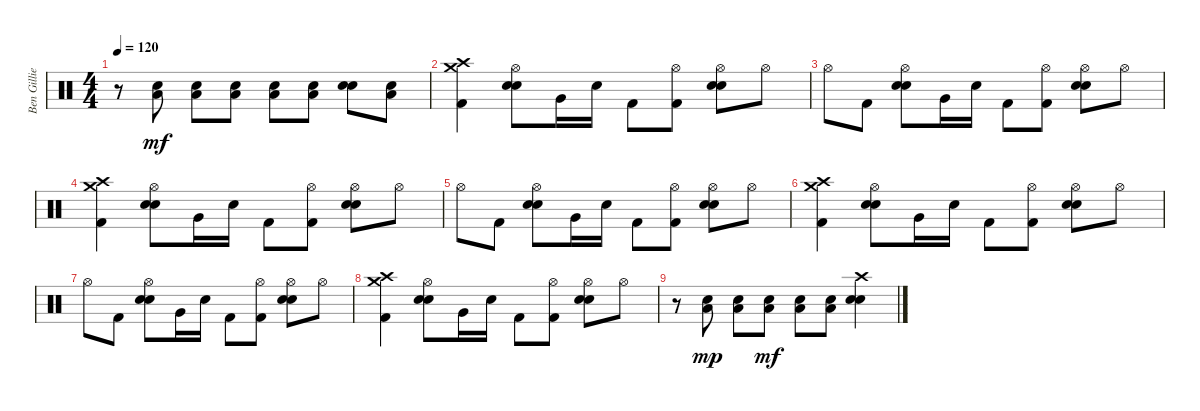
\track ("Ben Gillies" "Ben Gillie") {instrument percussion}
\staff {score}
\articulation defaults
\ts (4 4)
\tempo 120
\clef neutral
\ks c
r.8{dy mf} ("Low Floor Tom (hit)" "Electric Snare (hit)").8 ("Low Floor Tom (hit)" "Electric Snare (hit)").8 ("Low Floor Tom (hit)" "Electric Snare (hit)").8 ("Low Floor Tom (hit)" "Electric Snare (hit)").8 ("Low Floor Tom (hit)" "Electric Snare (hit)").8 ("Electric Snare (hit)" "Electric Snare (hit)").8 ("Low Floor Tom (hit)" "Electric Snare (hit)").8 |
("Crash high (hit)" "Crash medium (hit)" "Kick (hit) 2").4 ("Hi-Hat (open)" "Electric Snare (hit)" "Electric Snare (hit)").8 "Very Low Tom (hit)".16 "Electric Snare (hit)".16 "Kick (hit) 2".8 ("Hi-Hat (open)" "Kick (hit) 2").8 ("Hi-Hat (open)" "Electric Snare (hit)" "Electric Snare (hit)").8 "Hi-Hat (open)".8 |
"Hi-Hat (open)".8 "Kick (hit) 2".8 ("Hi-Hat (open)" "Electric Snare (hit)" "Electric Snare (hit)").8 "Very Low Tom (hit)".16 "Electric Snare (hit)".16 "Kick (hit) 2".8 ("Hi-Hat (open)" "Kick (hit) 2").8 ("Hi-Hat (open)" "Electric Snare (hit)" "Electric Snare (hit)").8 "Hi-Hat (open)".8 |
("Crash high (hit)" "Crash medium (hit)" "Kick (hit) 2").4 ("Hi-Hat (open)" "Electric Snare (hit)" "Electric Snare (hit)").8 "Very Low Tom (hit)".16 "Electric Snare (hit)".16 "Kick (hit) 2".8 ("Hi-Hat (open)" "Kick (hit) 2").8 ("Hi-Hat (open)" "Electric Snare (hit)" "Electric Snare (hit)").8 "Hi-Hat (open)".8 |
"Hi-Hat (open)".8 "Kick (hit) 2".8 ("Hi-Hat (open)" "Electric Snare (hit)" "Electric Snare (hit)").8 "Very Low Tom (hit)".16 "Electric Snare (hit)".16 "Kick (hit) 2".8 ("Hi-Hat (open)" "Kick (hit) 2").8 ("Hi-Hat (open)" "Electric Snare (hit)" "Electric Snare (hit)").8 "Hi-Hat (open)".8 |
("Crash high (hit)" "Crash medium (hit)" "Kick (hit) 2").4 ("Hi-Hat (open)" "Electric Snare (hit)" "Electric Snare (hit)").8 "Very Low Tom (hit)".16 "Electric Snare (hit)".16 "Kick (hit) 2".8 ("Hi-Hat (open)" "Kick (hit) 2").8 ("Hi-Hat (open)" "Electric Snare (hit)" "Electric Snare (hit)").8 "Hi-Hat (open)".8 |
"Hi-Hat (open)".8 "Kick (hit) 2".8 ("Hi-Hat (open)" "Electric Snare (hit)" "Electric Snare (hit)").8 "Very Low Tom (hit)".16 "Electric Snare (hit)".16 "Kick (hit) 2".8 ("Hi-Hat (open)" "Kick (hit) 2").8 ("Hi-Hat (open)" "Electric Snare (hit)" "Electric Snare (hit)").8 "Hi-Hat (open)".8 |
("Crash high (hit)" "Crash medium (hit)" "Kick (hit) 2").4 ("Hi-Hat (open)" "Electric Snare (hit)" "Electric Snare (hit)").8 "Very Low Tom (hit)".16 "Electric Snare (hit)".16 "Kick (hit) 2".8 ("Hi-Hat (open)" "Kick (hit) 2").8 ("Hi-Hat (open)" "Electric Snare (hit)" "Electric Snare (hit)").8 "Hi-Hat (open)".8 |
r.8 ("Low Floor Tom (hit)" "Electric Snare (hit)").8{dy mp} ("Low Floor Tom (hit)" "Electric Snare (hit)").8 ("Low Floor Tom (hit)" "Electric Snare (hit)").8{dy mf} ("Low Floor Tom (hit)" "Electric Snare (hit)").8 ("Low Floor Tom (hit)" "Electric Snare (hit)").8 ("Crash high (hit)" "Electric Snare (hit)" "Electric Snare (hit)").4
